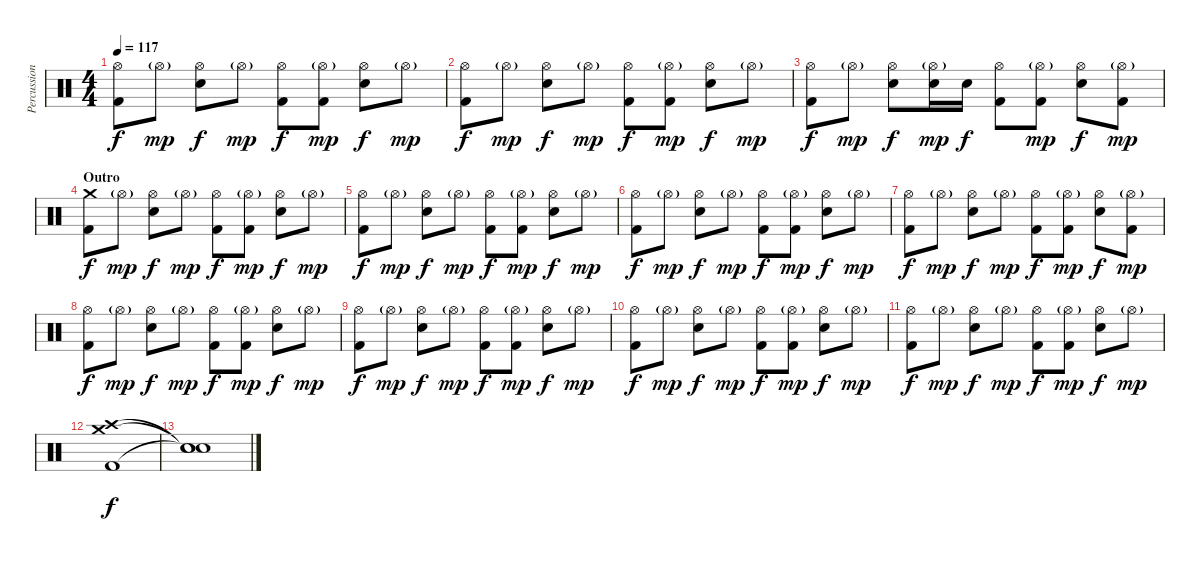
\track ("Percussion" "Percussion") {instrument percussion}
\staff {score}
\articulation defaults
\ts (4 4)
\tempo 117
\clef neutral
\ks c
("Hi-Hat (open)" "Kick (hit) 2").8{dy f} "Hi-Hat (open)"{g}.8{dy mp} ("Hi-Hat (open)" "Electric Snare (hit)").8{dy f} "Hi-Hat (open)"{g}.8{dy mp} ("Hi-Hat (open)" "Kick (hit) 2").8{dy f} ("Hi-Hat (open)"{g} "Kick (hit) 2").8{dy mp} ("Hi-Hat (open)" "Electric Snare (hit)").8{dy f} "Hi-Hat (open)"{g}.8{dy mp} |
("Hi-Hat (open)" "Kick (hit) 2").8{dy f} "Hi-Hat (open)"{g}.8{dy mp} ("Hi-Hat (open)" "Electric Snare (hit)").8{dy f} "Hi-Hat (open)"{g}.8{dy mp} ("Hi-Hat (open)" "Kick (hit) 2").8{dy f} ("Hi-Hat (open)"{g} "Kick (hit) 2").8{dy mp} ("Hi-Hat (open)" "Electric Snare (hit)").8{dy f} "Hi-Hat (open)"{g}.8{dy mp} |
("Hi-Hat (open)" "Kick (hit) 2").8{dy f} "Hi-Hat (open)"{g}.8{dy mp} ("Hi-Hat (open)" "Electric Snare (hit)").8{dy f} ("Hi-Hat (open)"{g} "Electric Snare (hit)").16{dy mp} "Electric Snare (hit)".16{dy f} ("Hi-Hat (open)" "Kick (hit) 2").8 ("Hi-Hat (open)"{g} "Kick (hit) 2").8{dy mp} ("Hi-Hat (open)" "Electric Snare (hit)").8{dy f} ("Hi-Hat (open)"{g} "Kick (hit) 2").8{dy mp} |
\section ("" "Outro")
("Crash medium (hit)" "Kick (hit) 2").8{dy f} "Hi-Hat (open)"{g}.8{dy mp} ("Hi-Hat (open)" "Electric Snare (hit)").8{dy f} "Hi-Hat (open)"{g}.8{dy mp} ("Hi-Hat (open)" "Kick (hit) 2").8{dy f} ("Hi-Hat (open)"{g} "Kick (hit) 2").8{dy mp} ("Hi-Hat (open)" "Electric Snare (hit)").8{dy f} "Hi-Hat (open)"{g}.8{dy mp} |
("Hi-Hat (open)" "Kick (hit) 2").8{dy f} "Hi-Hat (open)"{g}.8{dy mp} ("Hi-Hat (open)" "Electric Snare (hit)").8{dy f} "Hi-Hat (open)"{g}.8{dy mp} ("Hi-Hat (open)" "Kick (hit) 2").8{dy f} ("Hi-Hat (open)"{g} "Kick (hit) 2").8{dy mp} ("Hi-Hat (open)" "Electric Snare (hit)").8{dy f} "Hi-Hat (open)"{g}.8{dy mp} |
("Hi-Hat (open)" "Kick (hit) 2").8{dy f} "Hi-Hat (open)"{g}.8{dy mp} ("Hi-Hat (open)" "Electric Snare (hit)").8{dy f} "Hi-Hat (open)"{g}.8{dy mp} ("Hi-Hat (open)" "Kick (hit) 2").8{dy f} ("Hi-Hat (open)"{g} "Kick (hit) 2").8{dy mp} ("Hi-Hat (open)" "Electric Snare (hit)").8{dy f} "Hi-Hat (open)"{g}.8{dy mp} |
("Hi-Hat (open)" "Kick (hit) 2").8{dy f} "Hi-Hat (open)"{g}.8{dy mp} ("Hi-Hat (open)" "Electric Snare (hit)").8{dy f} "Hi-Hat (open)"{g}.8{dy mp} ("Hi-Hat (open)" "Kick (hit) 2").8{dy f} ("Hi-Hat (open)"{g} "Kick (hit) 2").8{dy mp} ("Hi-Hat (open)" "Electric Snare (hit)").8{dy f} ("Hi-Hat (open)"{g} "Kick (hit) 2").8{dy mp} |
("Hi-Hat (open)" "Kick (hit) 2").8{dy f} "Hi-Hat (open)"{g}.8{dy mp} ("Hi-Hat (open)" "Electric Snare (hit)").8{dy f} "Hi-Hat (open)"{g}.8{dy mp} ("Hi-Hat (open)" "Kick (hit) 2").8{dy f} ("Hi-Hat (open)"{g} "Kick (hit) 2").8{dy mp} ("Hi-Hat (open)" "Electric Snare (hit)").8{dy f} "Hi-Hat (open)"{g}.8{dy mp} |
("Hi-Hat (open)" "Kick (hit) 2").8{dy f} "Hi-Hat (open)"{g}.8{dy mp} ("Hi-Hat (open)" "Electric Snare (hit)").8{dy f} "Hi-Hat (open)"{g}.8{dy mp} ("Hi-Hat (open)" "Kick (hit) 2").8{dy f} ("Hi-Hat (open)"{g} "Kick (hit) 2").8{dy mp} ("Hi-Hat (open)" "Electric Snare (hit)").8{dy f} "Hi-Hat (open)"{g}.8{dy mp} |
("Hi-Hat (open)" "Kick (hit) 2").8{dy f} "Hi-Hat (open)"{g}.8{dy mp} ("Hi-Hat (open)" "Electric Snare (hit)").8{dy f} "Hi-Hat (open)"{g}.8{dy mp} ("Hi-Hat (open)" "Kick (hit) 2").8{dy f} ("Hi-Hat (open)"{g} "Kick (hit) 2").8{dy mp} ("Hi-Hat (open)" "Electric Snare (hit)").8{dy f} "Hi-Hat (open)"{g}.8{dy mp} |
("Hi-Hat (open)" "Kick (hit) 2").8{dy f} "Hi-Hat (open)"{g}.8{dy mp} ("Hi-Hat (open)" "Electric Snare (hit)").8{dy f} "Hi-Hat (open)"{g}.8{dy mp} ("Hi-Hat (open)" "Kick (hit) 2").8{dy f} ("Hi-Hat (open)"{g} "Kick (hit) 2").8{dy mp} ("Hi-Hat (open)" "Electric Snare (hit)").8{dy f} "Hi-Hat (open)"{g}.8{dy mp} |
("Crash medium (hit)" "Crash high (hit)" "Kick (hit) 2").1{dy f} |
("Snare (hit)"{t} "Snare (hit)"{t} "Snare (hit)"{t}).1
